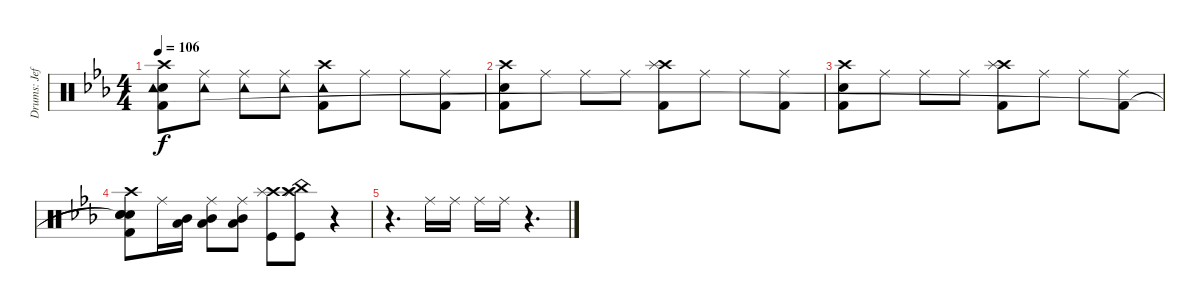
\track ("Drums: Jeff" "Drums: Jef") {instrument percussion}
\staff {score}
\articulation defaults
\ts (4 4)
\tempo 106
\clef neutral
\ks eb
("Crash high (hit)" "Snare (hit) 2" "Tambourine (hit)" "Kick (hit) 2").8{dy f} ("Ride (middle)" "Tambourine (hit)").8 ("Ride (middle)" "Tambourine (hit)").8 ("Ride (middle)" "Tambourine (hit)").8 ("Crash high (hit)" "Tambourine (hit)" "Kick (hit) 2").8 "Ride (middle)".8 "Ride (middle)".8 ("Ride (middle)" "Kick (hit) 2").8 |
("Crash high (hit)" "Snare (hit) 2" "Kick (hit) 2").8 "Ride (middle)".8 "Ride (middle)".8 "Ride (middle)".8 ("Crash high (hit)" "Splash (hit)" "Kick (hit) 2").8 "Ride (middle)".8 "Ride (middle)".8 ("Ride (middle)" "Kick (hit) 2").8 |
("Crash high (hit)" "Snare (hit) 2" "Kick (hit) 2").8 "Ride (middle)".8 "Ride (middle)".8 "Ride (middle)".8 ("Crash high (hit)" "Splash (hit)" "Kick (hit) 2").8 "Ride (middle)".8 "Ride (middle)".8 ("Ride (middle)" "Kick (hit) 2").8 |
("Crash high (hit)" "Snare (hit)"{t} "Snare (hit) 2" "Snare (hit)"{t} "Kick (hit) 2").8 "Ride (middle)".16 ("Mid Tom (hit)" "Low Tom (hit)").16 ("Ride (middle)" "Mid Tom (hit)" "Low Tom (hit)").8 ("Ride (middle)" "Low Tom (hit)" "Mid Tom (hit)").8 ("Crash high (hit)" "Splash (hit)" "Kick (hit)").8 ("Crash high (hit)" "Kick (hit)" "China (hit)" "Splash (hit)").8 r.4 |
r.4{d} "Ride (middle)".16 "Ride (middle)".16 "Ride (middle)".16 "Ride (middle)".16 r.4{d}
